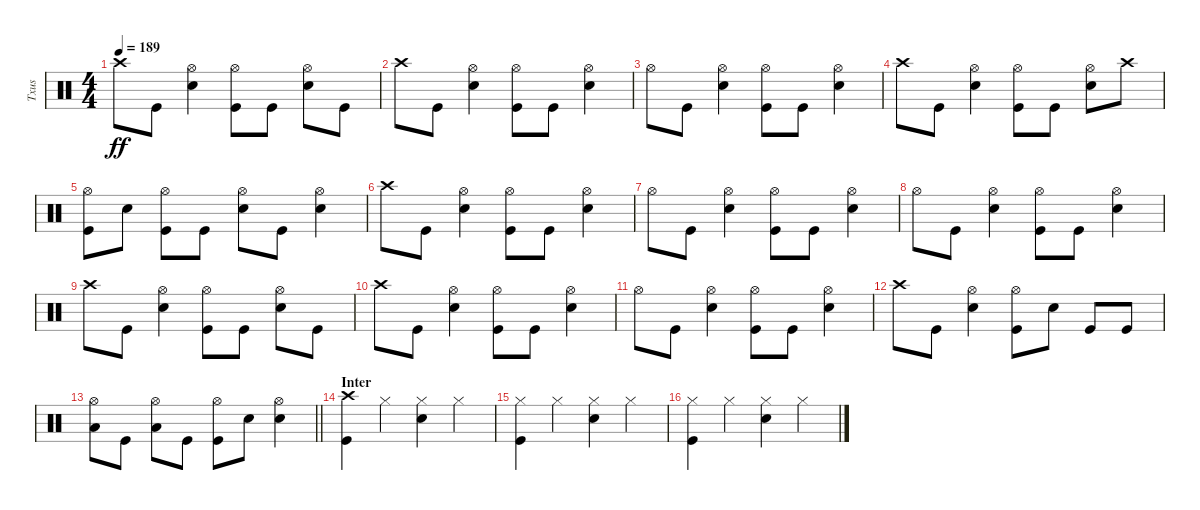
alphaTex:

\track ("Txus" "Txus") {instrument percussion}
\staff {score}
\articulation defaults
\ts (4 4)
\tempo 189
\clef neutral
\ks c "Crash high (hit)".8{dy ff} "Kick (hit)".8
("Snare (hit) 2" "Hi-Hat (open)").4 ("Kick (hit)" "Hi-Hat (open)").8 "Kick (hit)".8 ("Snare (hit) 2" "Hi-Hat (open)").8 "Kick (hit)".8 |
"Crash high (hit)".8 "Kick (hit)".8 ("Snare (hit) 2" "Hi-Hat (open)").4 ("Kick (hit)" "Hi-Hat (open)").8 "Kick (hit)".8 ("Snare (hit) 2" "Hi-Hat (open)").4 |
"Hi-Hat (open)".8 "Kick (hit)".8 ("Snare (hit) 2" "Hi-Hat (open)").4 ("Kick (hit)" "Hi-Hat (open)").8 "Kick (hit)".8 ("Snare (hit) 2" "Hi-Hat (open)").4 |
"Crash high (hit)".8 "Kick (hit)".8 ("Snare (hit) 2" "Hi-Hat (open)").4 ("Kick (hit)" "Hi-Hat (open)").8 "Kick (hit)".8 ("Snare (hit) 2" "Hi-Hat (open)").8 "Crash high (hit)".8 |
("Kick (hit)" "Hi-Hat (open)").8 "Snare (hit) 2".8 ("Kick (hit)" "Hi-Hat (open)").8 "Kick (hit)".8 ("Snare (hit) 2" "Hi-Hat (open)").8 "Kick (hit)".8 ("Snare (hit) 2" "Hi-Hat (open)").4 |
"Crash high (hit)".8 "Kick (hit)".8 ("Snare (hit) 2" "Hi-Hat (open)").4 ("Kick (hit)" "Hi-Hat (open)").8 "Kick (hit)".8 ("Snare (hit) 2" "Hi-Hat (open)").4 |
"Hi-Hat (open)".8 "Kick (hit)".8 ("Snare (hit) 2" "Hi-Hat (open)").4 ("Kick (hit)" "Hi-Hat (open)").8 "Kick (hit)".8 ("Snare (hit) 2" "Hi-Hat (open)").4 |
"Hi-Hat (open)".8 "Kick (hit)".8 ("Snare (hit) 2" "Hi-Hat (open)").4 ("Kick (hit)" "Hi-Hat (open)").8 "Kick (hit)".8 ("Snare (hit) 2" "Hi-Hat (open)").4 |
"Crash high (hit)".8 "Kick (hit)".8 ("Snare (hit) 2" "Hi-Hat (open)").4 ("Kick (hit)" "Hi-Hat (open)").8 "Kick (hit)".8 ("Snare (hit) 2" "Hi-Hat (open)").8 "Kick (hit)".8 |
"Crash high (hit)".8 "Kick (hit)".8 ("Snare (hit) 2" "Hi-Hat (open)").4 ("Kick (hit)" "Hi-Hat (open)").8 "Kick (hit)".8 ("Snare (hit) 2" "Hi-Hat (open)").4 |
"Hi-Hat (open)".8 "Kick (hit)".8 ("Snare (hit) 2" "Hi-Hat (open)").4 ("Kick (hit)" "Hi-Hat (open)").8 "Kick (hit)".8 ("Snare (hit) 2" "Hi-Hat (open)").4 |
"Crash high (hit)".8 "Kick (hit)".8 ("Snare (hit) 2" "Hi-Hat (open)").4 ("Kick (hit)" "Hi-Hat (open)").8 "Snare (hit) 2".8 "Kick (hit)".8 "Kick (hit)".8 |
\barLineRight lightlight
("Low Tom (hit)" "Hi-Hat (open)").8 "Kick (hit)".8 ("Low Tom (hit)" "Hi-Hat (open)").8 "Kick (hit)".8 ("Kick (hit)" "Hi-Hat (open)").8 "Snare (hit) 2".8 ("Snare (hit) 2" "Hi-Hat (open)").4 |
\section ("" "Inter")
("Kick (hit)" "Crash high (hit)").4 "Hi-Hat (closed)".4 ("Hi-Hat (closed)" "Snare (hit) 2").4 "Hi-Hat (closed)".4 |
("Hi-Hat (closed)" "Kick (hit)").4 "Hi-Hat (closed)".4 ("Hi-Hat (closed)" "Snare (hit) 2").4 "Hi-Hat (closed)".4 |
("Hi-Hat (closed)" "Kick (hit)").4 "Hi-Hat (closed)".4 ("Hi-Hat (closed)" "Snare (hit) 2").4 "Hi-Hat (closed)".4
